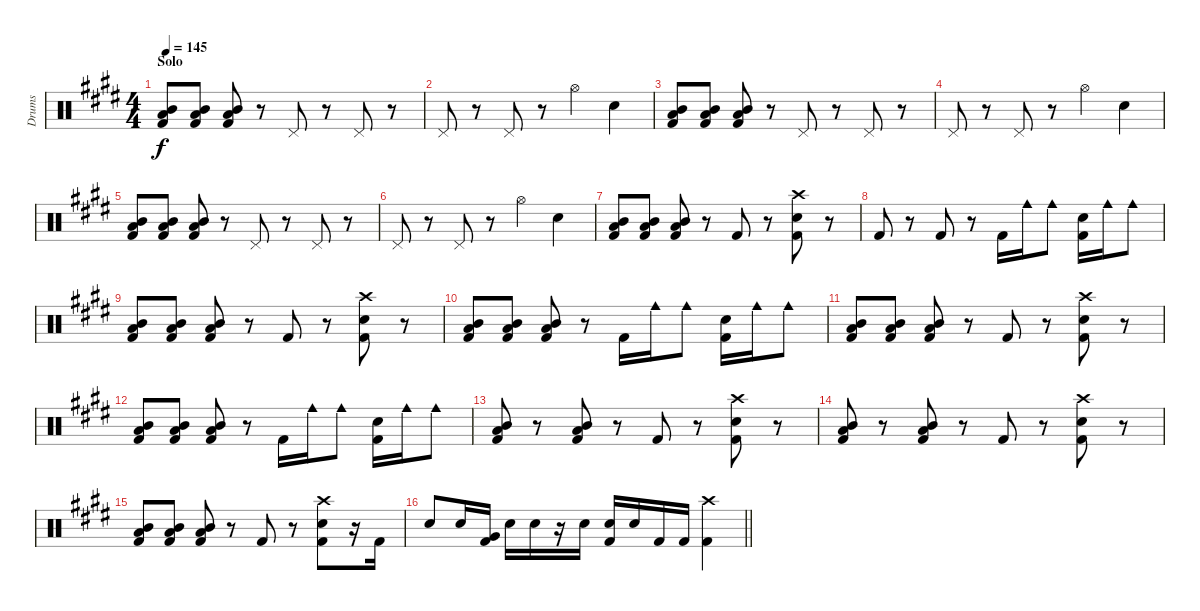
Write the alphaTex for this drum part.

\track ("Drums" "Drums") {instrument percussion}
\staff {score}
\articulation defaults
\ts (4 4)
\section ("" "Solo")
\tempo 145
\clef neutral
\ks e
("Mid Tom (hit)" "Low Tom (hit)" "Kick (hit) 2").8{dy f} ("Mid Tom (hit)" "Low Tom (hit)" "Kick (hit) 2").8 ("Mid Tom (hit)" "Low Tom (hit)" "Kick (hit) 2").8 r.8 "Pedal Hi-Hat (hit)".8 r.8 "Pedal Hi-Hat (hit)".8 r.8 |
"Pedal Hi-Hat (hit)".8 r.8 "Pedal Hi-Hat (hit)".8 r.8 "Hi-Hat (open)".4 "Snare (hit) 2".4 |
("Mid Tom (hit)" "Low Tom (hit)" "Kick (hit) 2").8 ("Mid Tom (hit)" "Low Tom (hit)" "Kick (hit) 2").8 ("Mid Tom (hit)" "Low Tom (hit)" "Kick (hit) 2").8 r.8 "Pedal Hi-Hat (hit)".8 r.8 "Pedal Hi-Hat (hit)".8 r.8 |
"Pedal Hi-Hat (hit)".8 r.8 "Pedal Hi-Hat (hit)".8 r.8 "Hi-Hat (open)".4 "Snare (hit) 2".4 |
("Mid Tom (hit)" "Low Tom (hit)" "Kick (hit) 2").8 ("Mid Tom (hit)" "Low Tom (hit)" "Kick (hit) 2").8 ("Mid Tom (hit)" "Low Tom (hit)" "Kick (hit) 2").8 r.8 "Pedal Hi-Hat (hit)".8 r.8 "Pedal Hi-Hat (hit)".8 r.8 |
"Pedal Hi-Hat (hit)".8 r.8 "Pedal Hi-Hat (hit)".8 r.8 "Hi-Hat (open)".4 "Snare (hit) 2".4 |
("Mid Tom (hit)" "Low Tom (hit)" "Kick (hit) 2").8 ("Mid Tom (hit)" "Low Tom (hit)" "Kick (hit) 2").8 ("Mid Tom (hit)" "Low Tom (hit)" "Kick (hit) 2").8 r.8 "Kick (hit) 2".8 r.8 ("Crash high (hit)" "Snare (hit) 2" "Kick (hit) 2").8 r.8 |
"Kick (hit) 2".8 r.8 "Kick (hit) 2".8 r.8 "Kick (hit) 2".16 "Cowbell medium (hit)".16 "Cowbell medium (hit)".8 ("Snare (hit) 2" "Kick (hit) 2").16 "Cowbell medium (hit)".16 "Cowbell medium (hit)".8 |
("Mid Tom (hit)" "Low Tom (hit)" "Kick (hit) 2").8 ("Mid Tom (hit)" "Low Tom (hit)" "Kick (hit) 2").8 ("Mid Tom (hit)" "Low Tom (hit)" "Kick (hit) 2").8 r.8 "Kick (hit) 2".8 r.8 ("Crash high (hit)" "Snare (hit) 2" "Kick (hit) 2").8 r.8 |
("Mid Tom (hit)" "Low Tom (hit)" "Kick (hit) 2").8 ("Mid Tom (hit)" "Low Tom (hit)" "Kick (hit) 2").8 ("Mid Tom (hit)" "Low Tom (hit)" "Kick (hit) 2").8 r.8 "Kick (hit) 2".16 "Cowbell medium (hit)".16 "Cowbell medium (hit)".8 ("Snare (hit) 2" "Kick (hit) 2").16 "Cowbell medium (hit)".16 "Cowbell medium (hit)".8 |
("Mid Tom (hit)" "Low Tom (hit)" "Kick (hit) 2").8 ("Mid Tom (hit)" "Low Tom (hit)" "Kick (hit) 2").8 ("Mid Tom (hit)" "Low Tom (hit)" "Kick (hit) 2").8 r.8 "Kick (hit) 2".8 r.8 ("Crash high (hit)" "Snare (hit) 2" "Kick (hit) 2").8 r.8 |
("Mid Tom (hit)" "Low Tom (hit)" "Kick (hit) 2").8 ("Mid Tom (hit)" "Low Tom (hit)" "Kick (hit) 2").8 ("Mid Tom (hit)" "Low Tom (hit)" "Kick (hit) 2").8 r.8 "Kick (hit) 2".16 "Cowbell medium (hit)".16 "Cowbell medium (hit)".8 ("Snare (hit) 2" "Kick (hit) 2").16 "Cowbell medium (hit)".16 "Cowbell medium (hit)".8 |
("Mid Tom (hit)" "Low Tom (hit)" "Kick (hit) 2").8 r.8 ("Mid Tom (hit)" "Low Tom (hit)" "Kick (hit) 2").8 r.8 "Kick (hit) 2".8 r.8 ("Crash high (hit)" "Snare (hit) 2" "Kick (hit) 2").8 r.8 |
("Mid Tom (hit)" "Low Tom (hit)" "Kick (hit) 2").8 r.8 ("Mid Tom (hit)" "Low Tom (hit)" "Kick (hit) 2").8 r.8 "Kick (hit) 2".8 r.8 ("Crash high (hit)" "Snare (hit) 2" "Kick (hit) 2").8 r.8 |
("Mid Tom (hit)" "Low Tom (hit)" "Kick (hit) 2").8 ("Mid Tom (hit)" "Low Tom (hit)" "Kick (hit) 2").8 ("Mid Tom (hit)" "Low Tom (hit)" "Kick (hit) 2").8 r.8 "Kick (hit) 2".8 r.8 ("Crash high (hit)" "Snare (hit) 2" "Kick (hit) 2").8 r.16 "Kick (hit) 2".16 |
\barLineRight lightlight "Electric Snare (hit)".8 "Electric Snare (hit)".16
("Very Low Tom (hit)" "Kick (hit) 2").16 "Electric Snare (hit)".16 "Electric Snare (hit)".16 r.16 "Electric Snare (hit)".16 ("Electric Snare (hit)" "Kick (hit) 2").16 "Electric Snare (hit)".16 "Kick (hit) 2".16 "Kick (hit) 2".16 ("Crash high (hit)" "Kick (hit) 2").4
